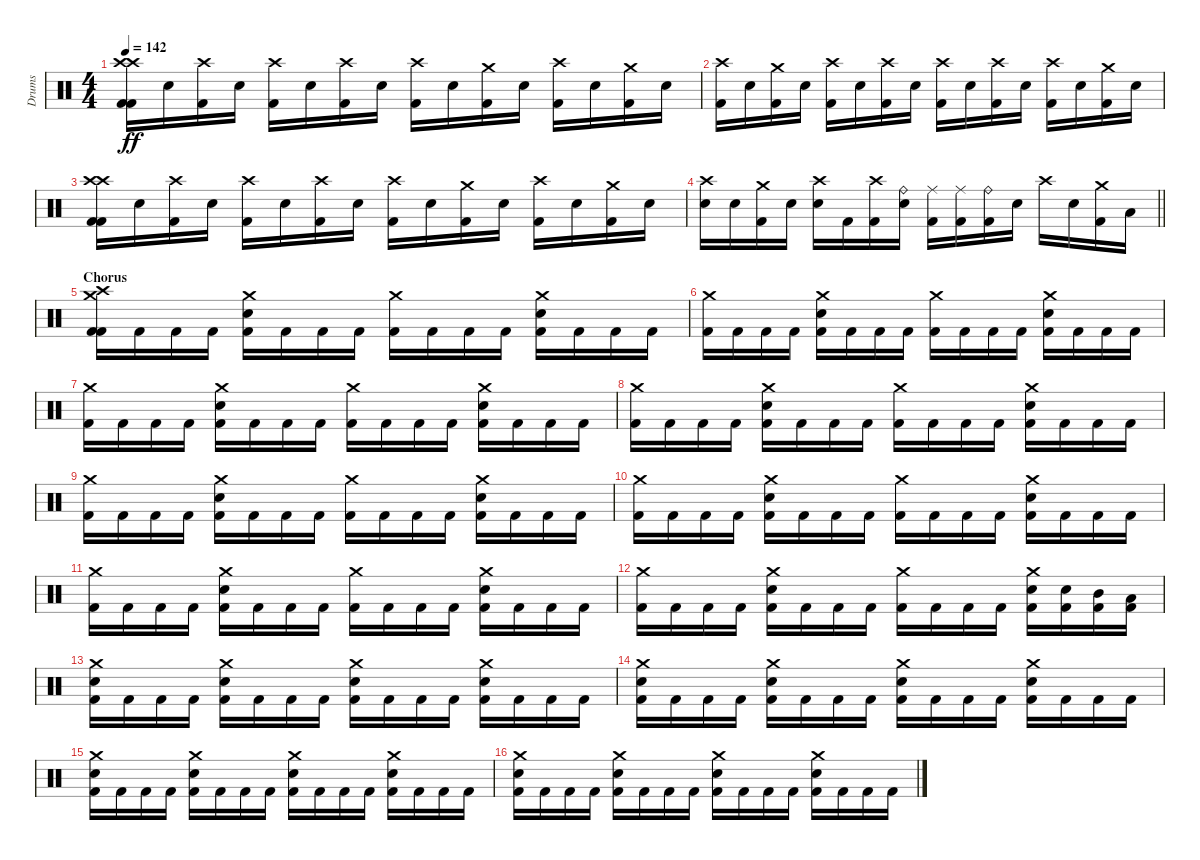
\track ("Drums" "Drums") {instrument percussion}
\staff {score}
\articulation defaults
\ts (4 4)
\tempo 142
\clef neutral
\ks c
("Crash high (hit)" "Kick (hit) 2" "Crash high (hit)" "Kick (hit) 2").16{dy ff} "Snare (hit) 2".16 ("Crash high (hit)" "Kick (hit) 2").16 "Snare (hit) 2".16 ("Crash high (hit)" "Kick (hit) 2").16 "Snare (hit) 2".16 ("Crash high (hit)" "Kick (hit) 2").16 "Snare (hit) 2".16 ("Crash high (hit)" "Kick (hit) 2").16 "Snare (hit) 2".16 ("Crash medium (hit)" "Kick (hit) 2").16 "Snare (hit) 2".16 ("Crash high (hit)" "Kick (hit) 2").16 "Snare (hit) 2".16 ("Crash medium (hit)" "Kick (hit) 2").16 "Snare (hit) 2".16 |
("Crash high (hit)" "Kick (hit) 2").16 "Snare (hit) 2".16 ("Crash medium (hit)" "Kick (hit) 2").16 "Snare (hit) 2".16 ("Crash high (hit)" "Kick (hit) 2").16 "Snare (hit) 2".16 ("Crash high (hit)" "Kick (hit) 2").16 "Snare (hit) 2".16 ("Crash high (hit)" "Kick (hit) 2").16 "Snare (hit) 2".16 ("Crash high (hit)" "Kick (hit) 2").16 "Snare (hit) 2".16 ("Crash high (hit)" "Kick (hit) 2").16 "Snare (hit) 2".16 ("Crash medium (hit)" "Kick (hit) 2").16 "Snare (hit) 2".16 |
("Crash high (hit)" "Kick (hit) 2" "Crash high (hit)" "Kick (hit) 2").16 "Snare (hit) 2".16 ("Crash high (hit)" "Kick (hit) 2").16 "Snare (hit) 2".16 ("Crash high (hit)" "Kick (hit) 2").16 "Snare (hit) 2".16 ("Crash high (hit)" "Kick (hit) 2").16 "Snare (hit) 2".16 ("Crash high (hit)" "Kick (hit) 2").16 "Snare (hit) 2".16 ("Crash medium (hit)" "Kick (hit) 2").16 "Snare (hit) 2".16 ("Crash high (hit)" "Kick (hit) 2").16 "Snare (hit) 2".16 ("Crash medium (hit)" "Kick (hit) 2").16 "Snare (hit) 2".16 |
\barLineRight lightlight
("Crash high (hit)" "Snare (hit) 2").16 "Snare (hit) 2".16 ("Crash medium (hit)" "Kick (hit) 2").16 "Snare (hit) 2".16 ("Crash high (hit)" "Snare (hit) 2").16 "Kick (hit) 2".16 ("Crash high (hit)" "Kick (hit) 2").16 ("Snare (hit) 2" "Ride (bell)").16 ("Kick (hit) 2" "Ride (middle)").16 ("Kick (hit) 2" "Ride (middle)").16 ("Kick (hit) 2" "Ride (bell)").16 "Snare (hit) 2".16 "Crash high (hit)".16 "Snare (hit) 2".16 ("Crash medium (hit)" "Kick (hit) 2").16 "Low Tom (hit)".16 |
\section ("" "Chorus")
("Crash high (hit)" "Kick (hit) 2" "Crash medium (hit)" "Kick (hit) 2").16 "Kick (hit) 2".16 "Kick (hit) 2".16 "Kick (hit) 2".16 ("Crash medium (hit)" "Kick (hit) 2" "Snare (hit) 2").16 "Kick (hit) 2".16 "Kick (hit) 2".16 "Kick (hit) 2".16 ("Crash medium (hit)" "Kick (hit) 2").16 "Kick (hit) 2".16 "Kick (hit) 2".16 "Kick (hit) 2".16 ("Crash medium (hit)" "Kick (hit) 2" "Snare (hit) 2").16 "Kick (hit) 2".16 "Kick (hit) 2".16 "Kick (hit) 2".16 |
("Crash medium (hit)" "Kick (hit) 2").16 "Kick (hit) 2".16 "Kick (hit) 2".16 "Kick (hit) 2".16 ("Crash medium (hit)" "Kick (hit) 2" "Snare (hit) 2").16 "Kick (hit) 2".16 "Kick (hit) 2".16 "Kick (hit) 2".16 ("Crash medium (hit)" "Kick (hit) 2").16 "Kick (hit) 2".16 "Kick (hit) 2".16 "Kick (hit) 2".16 ("Crash medium (hit)" "Kick (hit) 2" "Snare (hit) 2").16 "Kick (hit) 2".16 "Kick (hit) 2".16 "Kick (hit) 2".16 |
("Crash medium (hit)" "Kick (hit) 2").16 "Kick (hit) 2".16 "Kick (hit) 2".16 "Kick (hit) 2".16 ("Crash medium (hit)" "Kick (hit) 2" "Snare (hit) 2").16 "Kick (hit) 2".16 "Kick (hit) 2".16 "Kick (hit) 2".16 ("Crash medium (hit)" "Kick (hit) 2").16 "Kick (hit) 2".16 "Kick (hit) 2".16 "Kick (hit) 2".16 ("Crash medium (hit)" "Kick (hit) 2" "Snare (hit) 2").16 "Kick (hit) 2".16 "Kick (hit) 2".16 "Kick (hit) 2".16 |
("Crash medium (hit)" "Kick (hit) 2").16 "Kick (hit) 2".16 "Kick (hit) 2".16 "Kick (hit) 2".16 ("Crash medium (hit)" "Kick (hit) 2" "Snare (hit) 2").16 "Kick (hit) 2".16 "Kick (hit) 2".16 "Kick (hit) 2".16 ("Crash medium (hit)" "Kick (hit) 2").16 "Kick (hit) 2".16 "Kick (hit) 2".16 "Kick (hit) 2".16 ("Crash medium (hit)" "Kick (hit) 2" "Snare (hit) 2").16 "Kick (hit) 2".16 "Kick (hit) 2".16 "Kick (hit) 2".16 |
("Crash medium (hit)" "Kick (hit) 2").16 "Kick (hit) 2".16 "Kick (hit) 2".16 "Kick (hit) 2".16 ("Crash medium (hit)" "Kick (hit) 2" "Snare (hit) 2").16 "Kick (hit) 2".16 "Kick (hit) 2".16 "Kick (hit) 2".16 ("Crash medium (hit)" "Kick (hit) 2").16 "Kick (hit) 2".16 "Kick (hit) 2".16 "Kick (hit) 2".16 ("Crash medium (hit)" "Kick (hit) 2" "Snare (hit) 2").16 "Kick (hit) 2".16 "Kick (hit) 2".16 "Kick (hit) 2".16 |
("Crash medium (hit)" "Kick (hit) 2").16 "Kick (hit) 2".16 "Kick (hit) 2".16 "Kick (hit) 2".16 ("Crash medium (hit)" "Kick (hit) 2" "Snare (hit) 2").16 "Kick (hit) 2".16 "Kick (hit) 2".16 "Kick (hit) 2".16 ("Crash medium (hit)" "Kick (hit) 2").16 "Kick (hit) 2".16 "Kick (hit) 2".16 "Kick (hit) 2".16 ("Crash medium (hit)" "Kick (hit) 2" "Snare (hit) 2").16 "Kick (hit) 2".16 "Kick (hit) 2".16 "Kick (hit) 2".16 |
("Crash medium (hit)" "Kick (hit) 2").16 "Kick (hit) 2".16 "Kick (hit) 2".16 "Kick (hit) 2".16 ("Crash medium (hit)" "Kick (hit) 2" "Snare (hit) 2").16 "Kick (hit) 2".16 "Kick (hit) 2".16 "Kick (hit) 2".16 ("Crash medium (hit)" "Kick (hit) 2").16 "Kick (hit) 2".16 "Kick (hit) 2".16 "Kick (hit) 2".16 ("Crash medium (hit)" "Kick (hit) 2" "Snare (hit) 2").16 "Kick (hit) 2".16 "Kick (hit) 2".16 "Kick (hit) 2".16 |
("Crash medium (hit)" "Kick (hit) 2").16 "Kick (hit) 2".16 "Kick (hit) 2".16 "Kick (hit) 2".16 ("Crash medium (hit)" "Kick (hit) 2" "Snare (hit) 2").16 "Kick (hit) 2".16 "Kick (hit) 2".16 "Kick (hit) 2".16 ("Crash medium (hit)" "Kick (hit) 2").16 "Kick (hit) 2".16 "Kick (hit) 2".16 "Kick (hit) 2".16 ("Crash medium (hit)" "Kick (hit) 2" "Snare (hit) 2").16 ("Kick (hit) 2" "Snare (hit) 2").16 ("Kick (hit) 2" "Mid Tom (hit)").16 ("Kick (hit) 2" "Low Tom (hit)").16 |
("Crash medium (hit)" "Kick (hit) 2" "Snare (hit) 2").16 "Kick (hit) 2".16 "Kick (hit) 2".16 "Kick (hit) 2".16 ("Crash medium (hit)" "Kick (hit) 2" "Snare (hit) 2").16 "Kick (hit) 2".16 "Kick (hit) 2".16 "Kick (hit) 2".16 ("Crash medium (hit)" "Kick (hit) 2" "Snare (hit) 2").16 "Kick (hit) 2".16 "Kick (hit) 2".16 "Kick (hit) 2".16 ("Crash medium (hit)" "Kick (hit) 2" "Snare (hit) 2").16 "Kick (hit) 2".16 "Kick (hit) 2".16 "Kick (hit) 2".16 |
("Crash medium (hit)" "Kick (hit) 2" "Snare (hit) 2").16 "Kick (hit) 2".16 "Kick (hit) 2".16 "Kick (hit) 2".16 ("Crash medium (hit)" "Kick (hit) 2" "Snare (hit) 2").16 "Kick (hit) 2".16 "Kick (hit) 2".16 "Kick (hit) 2".16 ("Crash medium (hit)" "Kick (hit) 2" "Snare (hit) 2").16 "Kick (hit) 2".16 "Kick (hit) 2".16 "Kick (hit) 2".16 ("Crash medium (hit)" "Kick (hit) 2" "Snare (hit) 2").16 "Kick (hit) 2".16 "Kick (hit) 2".16 "Kick (hit) 2".16 |
("Crash medium (hit)" "Kick (hit) 2" "Snare (hit) 2").16 "Kick (hit) 2".16 "Kick (hit) 2".16 "Kick (hit) 2".16 ("Crash medium (hit)" "Kick (hit) 2" "Snare (hit) 2").16 "Kick (hit) 2".16 "Kick (hit) 2".16 "Kick (hit) 2".16 ("Crash medium (hit)" "Kick (hit) 2" "Snare (hit) 2").16 "Kick (hit) 2".16 "Kick (hit) 2".16 "Kick (hit) 2".16 ("Crash medium (hit)" "Kick (hit) 2" "Snare (hit) 2").16 "Kick (hit) 2".16 "Kick (hit) 2".16 "Kick (hit) 2".16 |
("Crash medium (hit)" "Kick (hit) 2" "Snare (hit) 2").16 "Kick (hit) 2".16 "Kick (hit) 2".16 "Kick (hit) 2".16 ("Crash medium (hit)" "Kick (hit) 2" "Snare (hit) 2").16 "Kick (hit) 2".16 "Kick (hit) 2".16 "Kick (hit) 2".16 ("Crash medium (hit)" "Kick (hit) 2" "Snare (hit) 2").16 "Kick (hit) 2".16 "Kick (hit) 2".16 "Kick (hit) 2".16 ("Crash medium (hit)" "Kick (hit) 2" "Snare (hit) 2").16 "Kick (hit) 2".16 "Kick (hit) 2".16 "Kick (hit) 2".16
